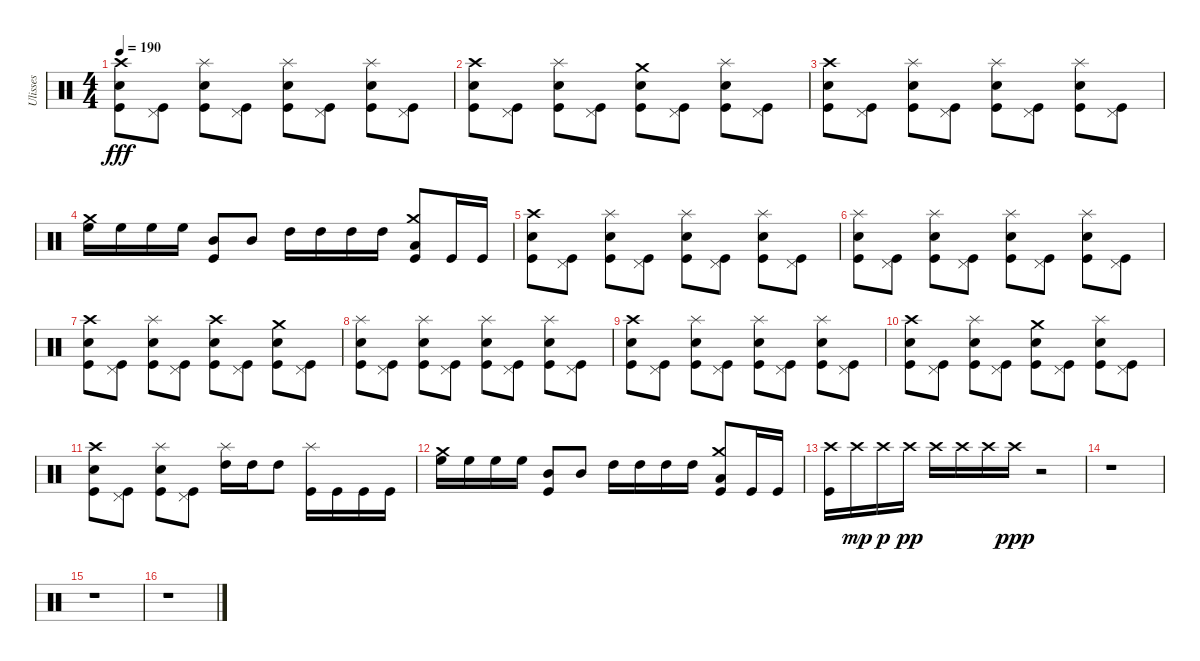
\track ("Ulisses" "Ulisses") {instrument percussion}
\staff {score}
\articulation defaults
\ts (4 4)
\tempo 190
\clef neutral
\ks c
("Crash high (hit)" "Electric Snare (hit)" "Kick (hit)").8{dy fff} ("Pedal Hi-Hat (hit)" "Kick (hit)").8 ("Splash (hit)" "Electric Snare (hit)" "Kick (hit)").8 ("Pedal Hi-Hat (hit)" "Kick (hit)").8 ("Splash (hit)" "Electric Snare (hit)" "Kick (hit)").8 ("Pedal Hi-Hat (hit)" "Kick (hit)").8 ("Splash (hit)" "Electric Snare (hit)" "Kick (hit)").8 ("Pedal Hi-Hat (hit)" "Kick (hit)").8 |
("Crash high (hit)" "Electric Snare (hit)" "Kick (hit)").8 ("Pedal Hi-Hat (hit)" "Kick (hit)").8 ("Splash (hit)" "Electric Snare (hit)" "Kick (hit)").8 ("Pedal Hi-Hat (hit)" "Kick (hit)").8 ("Crash medium (hit)" "Electric Snare (hit)" "Kick (hit)").8 ("Pedal Hi-Hat (hit)" "Kick (hit)").8 ("Splash (hit)" "Electric Snare (hit)" "Kick (hit)").8 ("Pedal Hi-Hat (hit)" "Kick (hit)").8 |
("Crash high (hit)" "Electric Snare (hit)" "Kick (hit)").8 ("Pedal Hi-Hat (hit)" "Kick (hit)").8 ("Splash (hit)" "Electric Snare (hit)" "Kick (hit)").8 ("Pedal Hi-Hat (hit)" "Kick (hit)").8 ("Splash (hit)" "Electric Snare (hit)" "Kick (hit)").8 ("Pedal Hi-Hat (hit)" "Kick (hit)").8 ("Splash (hit)" "Electric Snare (hit)" "Kick (hit)").8 ("Pedal Hi-Hat (hit)" "Kick (hit)").8 |
("Crash medium (hit)" "High Floor Tom (hit)").16 "High Floor Tom (hit)".16 "High Floor Tom (hit)".16 "High Floor Tom (hit)".16 ("Mid Tom (hit)" "Kick (hit)").8 "Mid Tom (hit)".8 "High Tom (hit)".16 "High Tom (hit)".16 "High Tom (hit)".16 "High Tom (hit)".16 ("Crash medium (hit)" "Low Tom (hit)" "Kick (hit)").8 "Kick (hit)".16 "Kick (hit)".16 |
("Crash high (hit)" "Electric Snare (hit)" "Kick (hit)").8 ("Pedal Hi-Hat (hit)" "Kick (hit)").8 ("Splash (hit)" "Electric Snare (hit)" "Kick (hit)").8 ("Pedal Hi-Hat (hit)" "Kick (hit)").8 ("Splash (hit)" "Electric Snare (hit)" "Kick (hit)").8 ("Pedal Hi-Hat (hit)" "Kick (hit)").8 ("Splash (hit)" "Electric Snare (hit)" "Kick (hit)").8 ("Pedal Hi-Hat (hit)" "Kick (hit)").8 |
("Splash (hit)" "Electric Snare (hit)" "Kick (hit)").8 ("Pedal Hi-Hat (hit)" "Kick (hit)").8 ("Splash (hit)" "Electric Snare (hit)" "Kick (hit)").8 ("Pedal Hi-Hat (hit)" "Kick (hit)").8 ("Splash (hit)" "Electric Snare (hit)" "Kick (hit)").8 ("Pedal Hi-Hat (hit)" "Kick (hit)").8 ("Splash (hit)" "Electric Snare (hit)" "Kick (hit)").8 ("Pedal Hi-Hat (hit)" "Kick (hit)").8 |
("Crash high (hit)" "Electric Snare (hit)" "Kick (hit)").8 ("Pedal Hi-Hat (hit)" "Kick (hit)").8 ("Splash (hit)" "Electric Snare (hit)" "Kick (hit)").8 ("Pedal Hi-Hat (hit)" "Kick (hit)").8 ("Crash high (hit)" "Electric Snare (hit)" "Kick (hit)").8 ("Pedal Hi-Hat (hit)" "Kick (hit)").8 ("Crash medium (hit)" "Electric Snare (hit)" "Kick (hit)").8 ("Pedal Hi-Hat (hit)" "Kick (hit)").8 |
("Splash (hit)" "Electric Snare (hit)" "Kick (hit)").8 ("Pedal Hi-Hat (hit)" "Kick (hit)").8 ("Splash (hit)" "Electric Snare (hit)" "Kick (hit)").8 ("Pedal Hi-Hat (hit)" "Kick (hit)").8 ("Splash (hit)" "Electric Snare (hit)" "Kick (hit)").8 ("Pedal Hi-Hat (hit)" "Kick (hit)").8 ("Splash (hit)" "Electric Snare (hit)" "Kick (hit)").8 ("Pedal Hi-Hat (hit)" "Kick (hit)").8 |
("Crash high (hit)" "Electric Snare (hit)" "Kick (hit)").8 ("Pedal Hi-Hat (hit)" "Kick (hit)").8 ("Splash (hit)" "Electric Snare (hit)" "Kick (hit)").8 ("Pedal Hi-Hat (hit)" "Kick (hit)").8 ("Splash (hit)" "Electric Snare (hit)" "Kick (hit)").8 ("Pedal Hi-Hat (hit)" "Kick (hit)").8 ("Splash (hit)" "Electric Snare (hit)" "Kick (hit)").8 ("Pedal Hi-Hat (hit)" "Kick (hit)").8 |
("Crash high (hit)" "Electric Snare (hit)" "Kick (hit)").8 ("Pedal Hi-Hat (hit)" "Kick (hit)").8 ("Splash (hit)" "Electric Snare (hit)" "Kick (hit)").8 ("Pedal Hi-Hat (hit)" "Kick (hit)").8 ("Crash medium (hit)" "Electric Snare (hit)" "Kick (hit)").8 ("Pedal Hi-Hat (hit)" "Kick (hit)").8 ("Splash (hit)" "Electric Snare (hit)" "Kick (hit)").8 ("Pedal Hi-Hat (hit)" "Kick (hit)").8 |
("Crash high (hit)" "Electric Snare (hit)" "Kick (hit)").8 ("Pedal Hi-Hat (hit)" "Kick (hit)").8 ("Splash (hit)" "Electric Snare (hit)" "Kick (hit)").8 ("Pedal Hi-Hat (hit)" "Kick (hit)").8 ("Splash (hit)" "High Tom (hit)").16 "High Tom (hit)".16 "High Tom (hit)".8 ("Splash (hit)" "Kick (hit)").16 "Kick (hit)".16 "Kick (hit)".16 "Kick (hit)".16 |
("Crash medium (hit)" "High Floor Tom (hit)").16 "High Floor Tom (hit)".16 "High Floor Tom (hit)".16 "High Floor Tom (hit)".16 ("Mid Tom (hit)" "Kick (hit)").8 "Mid Tom (hit)".8 "High Tom (hit)".16 "High Tom (hit)".16 "High Tom (hit)".16 "High Tom (hit)".16 ("Crash medium (hit)" "Low Tom (hit)" "Kick (hit)").8 "Kick (hit)".16 "Kick (hit)".16 |
("Crash high (hit)" "Kick (hit)").16 "Crash high (hit)".16{dy mp} "Crash high (hit)".16{dy p} "Crash high (hit)".16{dy pp} "Crash high (hit)".16 "Crash high (hit)".16 "Crash high (hit)".16 "Crash high (hit)".16{dy ppp} r.2 |
r.1 |
r.1 |
r.1
